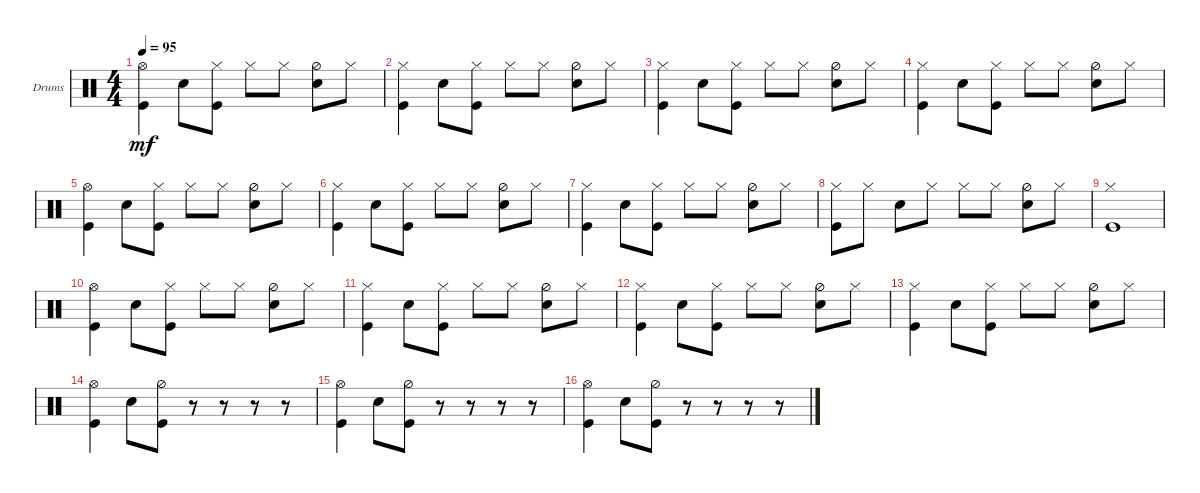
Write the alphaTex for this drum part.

\defaultSystemsLayout 4
\bracketExtendMode groupsimilarinstruments
\firstSystemTrackNameOrientation horizontal
\otherSystemsTrackNameOrientation horizontal
\track ("Drums" "Drums") {instrument percussion}
\staff {score}
\articulation defaults
\ts (4 4)
\tempo 95
\clef neutral
\ks c
("Kick (hit)" "Hi-Hat (open)").4{dy mf} "Snare (hit) 2".8 ("Kick (hit)" "Hi-Hat (closed)").8 "Hi-Hat (closed)".8 "Hi-Hat (closed)".8 ("Snare (hit) 2" "Hi-Hat (half)").8 "Hi-Hat (closed)".8 |
("Kick (hit)" "Hi-Hat (closed)").4 "Snare (hit) 2".8 ("Kick (hit)" "Hi-Hat (closed)").8 "Hi-Hat (closed)".8 "Hi-Hat (closed)".8 ("Snare (hit) 2" "Hi-Hat (half)").8 "Hi-Hat (closed)".8 |
("Kick (hit)" "Hi-Hat (closed)").4 "Snare (hit) 2".8 ("Kick (hit)" "Hi-Hat (closed)").8 "Hi-Hat (closed)".8 "Hi-Hat (closed)".8 ("Snare (hit) 2" "Hi-Hat (half)").8 "Hi-Hat (closed)".8 |
("Kick (hit)" "Hi-Hat (closed)").4 "Snare (hit) 2".8 ("Kick (hit)" "Hi-Hat (closed)").8 "Hi-Hat (closed)".8 "Hi-Hat (closed)".8 ("Snare (hit) 2" "Hi-Hat (half)").8 "Hi-Hat (closed)".8 |
("Kick (hit)" "Hi-Hat (open)").4 "Snare (hit) 2".8 ("Kick (hit)" "Hi-Hat (closed)").8 "Hi-Hat (closed)".8 "Hi-Hat (closed)".8 ("Snare (hit) 2" "Hi-Hat (half)").8 "Hi-Hat (closed)".8 |
("Kick (hit)" "Hi-Hat (closed)").4 "Snare (hit) 2".8 ("Kick (hit)" "Hi-Hat (closed)").8 "Hi-Hat (closed)".8 "Hi-Hat (closed)".8 ("Snare (hit) 2" "Hi-Hat (half)").8 "Hi-Hat (closed)".8 |
("Kick (hit)" "Hi-Hat (closed)").4 "Snare (hit) 2".8 ("Kick (hit)" "Hi-Hat (closed)").8 "Hi-Hat (closed)".8 "Hi-Hat (closed)".8 ("Snare (hit) 2" "Hi-Hat (half)").8 "Hi-Hat (closed)".8 |
("Kick (hit)" "Hi-Hat (closed)").8 "Hi-Hat (closed)".8 "Snare (hit) 2".8 "Hi-Hat (closed)".8 "Hi-Hat (closed)".8 "Hi-Hat (closed)".8 ("Snare (hit) 2" "Hi-Hat (half)").8 "Hi-Hat (closed)".8 |
("Kick (hit)" "Hi-Hat (closed)").1 |
("Kick (hit)" "Hi-Hat (open)").4 "Snare (hit) 2".8 ("Kick (hit)" "Hi-Hat (closed)").8 "Hi-Hat (closed)".8 "Hi-Hat (closed)".8 ("Snare (hit) 2" "Hi-Hat (half)").8 "Hi-Hat (closed)".8 |
("Kick (hit)" "Hi-Hat (closed)").4 "Snare (hit) 2".8 ("Kick (hit)" "Hi-Hat (closed)").8 "Hi-Hat (closed)".8 "Hi-Hat (closed)".8 ("Snare (hit) 2" "Hi-Hat (half)").8 "Hi-Hat (closed)".8 |
("Kick (hit)" "Hi-Hat (closed)").4 "Snare (hit) 2".8 ("Kick (hit)" "Hi-Hat (closed)").8 "Hi-Hat (closed)".8 "Hi-Hat (closed)".8 ("Snare (hit) 2" "Hi-Hat (half)").8 "Hi-Hat (closed)".8 |
("Kick (hit)" "Hi-Hat (closed)").4 "Snare (hit) 2".8 ("Kick (hit)" "Hi-Hat (closed)").8 "Hi-Hat (closed)".8 "Hi-Hat (closed)".8 ("Snare (hit) 2" "Hi-Hat (half)").8 "Hi-Hat (closed)".8 |
("Kick (hit)" "Hi-Hat (open)").4 "Snare (hit) 2".8 ("Kick (hit)" "Hi-Hat (half)").8 r.8 r.8 r.8 r.8 |
("Kick (hit)" "Hi-Hat (open)").4 "Snare (hit) 2".8 ("Kick (hit)" "Hi-Hat (half)").8 r.8 r.8 r.8 r.8 |
("Kick (hit)" "Hi-Hat (open)").4 "Snare (hit) 2".8 ("Kick (hit)" "Hi-Hat (half)").8 r.8 r.8 r.8 r.8
